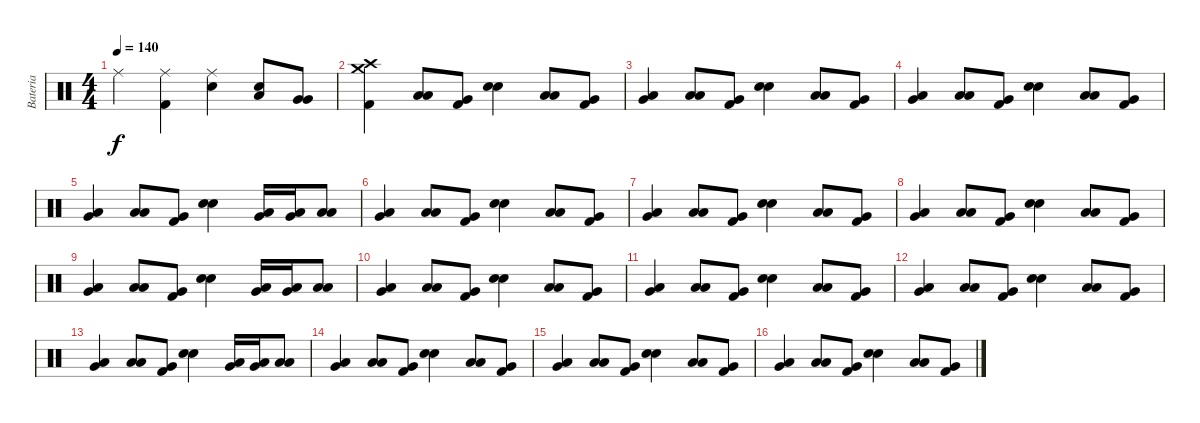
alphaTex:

\track ("Bateria" "Bateria") {instrument percussion}
\staff {score}
\articulation defaults
\ts (4 4)
\tempo 140
\clef neutral
\ks c "Ride (middle)".4{dy f}
("Ride (middle)" "Kick (hit) 2").4 ("Ride (middle)" "Electric Snare (hit)").4 ("Low Tom (hit)" "Electric Snare (hit)").8 ("Very Low Tom (hit)" "Very Low Tom (hit)").8 |
("Crash medium (hit)" "Crash high (hit)" "Kick (hit) 2").4 ("Low Tom (hit)" "Low Tom (hit)").8 ("Kick (hit) 2" "Very Low Tom (hit)").8 ("Electric Snare (hit)" "Electric Snare (hit)").4 ("Low Tom (hit)" "Low Tom (hit)").8 ("Kick (hit) 2" "Very Low Tom (hit)").8 |
("Very Low Tom (hit)" "Low Floor Tom (hit)").4 ("Low Tom (hit)" "Low Tom (hit)").8 ("Kick (hit) 2" "Very Low Tom (hit)").8 ("Electric Snare (hit)" "Electric Snare (hit)").4 ("Low Tom (hit)" "Low Tom (hit)").8 ("Kick (hit) 2" "Very Low Tom (hit)").8 |
("Very Low Tom (hit)" "Low Floor Tom (hit)").4 ("Low Tom (hit)" "Low Tom (hit)").8 ("Kick (hit) 2" "Very Low Tom (hit)").8 ("Electric Snare (hit)" "Electric Snare (hit)").4 ("Low Tom (hit)" "Low Tom (hit)").8 ("Kick (hit) 2" "Very Low Tom (hit)").8 |
("Very Low Tom (hit)" "Low Floor Tom (hit)").4 ("Low Tom (hit)" "Low Tom (hit)").8 ("Kick (hit) 2" "Very Low Tom (hit)").8 ("Electric Snare (hit)" "Electric Snare (hit)").4 ("Low Tom (hit)" "Very Low Tom (hit)").16 ("Low Tom (hit)" "Very Low Tom (hit)").16 ("Low Tom (hit)" "Low Tom (hit)").8 |
("Very Low Tom (hit)" "Low Floor Tom (hit)").4 ("Low Tom (hit)" "Low Tom (hit)").8 ("Kick (hit) 2" "Very Low Tom (hit)").8 ("Electric Snare (hit)" "Electric Snare (hit)").4 ("Low Tom (hit)" "Low Tom (hit)").8 ("Kick (hit) 2" "Very Low Tom (hit)").8 |
("Very Low Tom (hit)" "Low Floor Tom (hit)").4 ("Low Tom (hit)" "Low Tom (hit)").8 ("Kick (hit) 2" "Very Low Tom (hit)").8 ("Electric Snare (hit)" "Electric Snare (hit)").4 ("Low Tom (hit)" "Low Tom (hit)").8 ("Kick (hit) 2" "Very Low Tom (hit)").8 |
("Very Low Tom (hit)" "Low Floor Tom (hit)").4 ("Low Tom (hit)" "Low Tom (hit)").8 ("Kick (hit) 2" "Very Low Tom (hit)").8 ("Electric Snare (hit)" "Electric Snare (hit)").4 ("Low Tom (hit)" "Low Tom (hit)").8 ("Kick (hit) 2" "Very Low Tom (hit)").8 |
("Very Low Tom (hit)" "Low Floor Tom (hit)").4 ("Low Tom (hit)" "Low Tom (hit)").8 ("Kick (hit) 2" "Very Low Tom (hit)").8 ("Electric Snare (hit)" "Electric Snare (hit)").4 ("Low Tom (hit)" "Very Low Tom (hit)").16 ("Low Tom (hit)" "Very Low Tom (hit)").16 ("Low Tom (hit)" "Low Tom (hit)").8 |
("Very Low Tom (hit)" "Low Floor Tom (hit)").4 ("Low Tom (hit)" "Low Tom (hit)").8 ("Kick (hit) 2" "Very Low Tom (hit)").8 ("Electric Snare (hit)" "Electric Snare (hit)").4 ("Low Tom (hit)" "Low Tom (hit)").8 ("Kick (hit) 2" "Very Low Tom (hit)").8 |
("Very Low Tom (hit)" "Low Floor Tom (hit)").4 ("Low Tom (hit)" "Low Tom (hit)").8 ("Kick (hit) 2" "Very Low Tom (hit)").8 ("Electric Snare (hit)" "Electric Snare (hit)").4 ("Low Tom (hit)" "Low Tom (hit)").8 ("Kick (hit) 2" "Very Low Tom (hit)").8 |
("Very Low Tom (hit)" "Low Floor Tom (hit)").4 ("Low Tom (hit)" "Low Tom (hit)").8 ("Kick (hit) 2" "Very Low Tom (hit)").8 ("Electric Snare (hit)" "Electric Snare (hit)").4 ("Low Tom (hit)" "Low Tom (hit)").8 ("Kick (hit) 2" "Very Low Tom (hit)").8 |
("Very Low Tom (hit)" "Low Floor Tom (hit)").4 ("Low Tom (hit)" "Low Tom (hit)").8 ("Kick (hit) 2" "Very Low Tom (hit)").8 ("Electric Snare (hit)" "Electric Snare (hit)").4 ("Low Tom (hit)" "Very Low Tom (hit)").16 ("Low Tom (hit)" "Very Low Tom (hit)").16 ("Low Tom (hit)" "Low Tom (hit)").8 |
("Very Low Tom (hit)" "Low Floor Tom (hit)").4 ("Low Tom (hit)" "Low Tom (hit)").8 ("Kick (hit) 2" "Very Low Tom (hit)").8 ("Electric Snare (hit)" "Electric Snare (hit)").4 ("Low Tom (hit)" "Low Tom (hit)").8 ("Kick (hit) 2" "Very Low Tom (hit)").8 |
("Very Low Tom (hit)" "Low Floor Tom (hit)").4 ("Low Tom (hit)" "Low Tom (hit)").8 ("Kick (hit) 2" "Very Low Tom (hit)").8 ("Electric Snare (hit)" "Electric Snare (hit)").4 ("Low Tom (hit)" "Low Tom (hit)").8 ("Kick (hit) 2" "Very Low Tom (hit)").8 |
("Very Low Tom (hit)" "Low Floor Tom (hit)").4 ("Low Tom (hit)" "Low Tom (hit)").8 ("Kick (hit) 2" "Very Low Tom (hit)").8 ("Electric Snare (hit)" "Electric Snare (hit)").4 ("Low Tom (hit)" "Low Tom (hit)").8 ("Kick (hit) 2" "Very Low Tom (hit)").8
